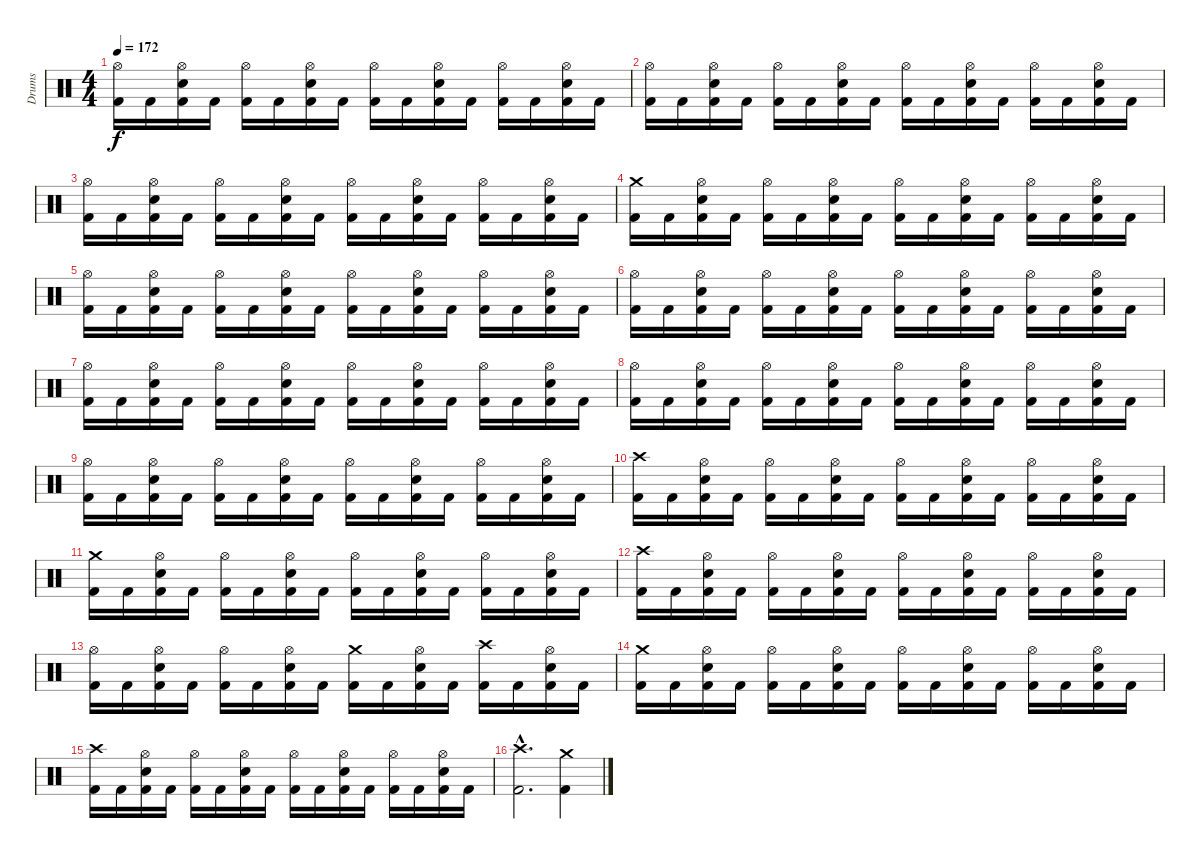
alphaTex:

\track ("Drums" "Drums") {instrument percussion}
\staff {score}
\articulation defaults
\ts (4 4)
\tempo 172
\clef neutral
\ks c
("Kick (hit) 2" "Hi-Hat (open)").16{dy f} "Kick (hit) 2".16 ("Kick (hit) 2" "Snare (hit) 2" "Hi-Hat (open)").16 "Kick (hit) 2".16 ("Kick (hit) 2" "Hi-Hat (open)").16 "Kick (hit) 2".16 ("Kick (hit) 2" "Snare (hit) 2" "Hi-Hat (open)").16 "Kick (hit) 2".16 ("Kick (hit) 2" "Hi-Hat (open)").16 "Kick (hit) 2".16 ("Kick (hit) 2" "Snare (hit) 2" "Hi-Hat (open)").16 "Kick (hit) 2".16 ("Kick (hit) 2" "Hi-Hat (open)").16 "Kick (hit) 2".16 ("Kick (hit) 2" "Snare (hit) 2" "Hi-Hat (open)").16 "Kick (hit) 2".16 |
("Kick (hit) 2" "Hi-Hat (open)").16 "Kick (hit) 2".16 ("Kick (hit) 2" "Snare (hit) 2" "Hi-Hat (open)").16 "Kick (hit) 2".16 ("Kick (hit) 2" "Hi-Hat (open)").16 "Kick (hit) 2".16 ("Kick (hit) 2" "Snare (hit) 2" "Hi-Hat (open)").16 "Kick (hit) 2".16 ("Kick (hit) 2" "Hi-Hat (open)").16 "Kick (hit) 2".16 ("Kick (hit) 2" "Snare (hit) 2" "Hi-Hat (open)").16 "Kick (hit) 2".16 ("Kick (hit) 2" "Hi-Hat (open)").16 "Kick (hit) 2".16 ("Kick (hit) 2" "Snare (hit) 2" "Hi-Hat (open)").16 "Kick (hit) 2".16 |
("Kick (hit) 2" "Hi-Hat (open)").16 "Kick (hit) 2".16 ("Kick (hit) 2" "Snare (hit) 2" "Hi-Hat (open)").16 "Kick (hit) 2".16 ("Kick (hit) 2" "Hi-Hat (open)").16 "Kick (hit) 2".16 ("Kick (hit) 2" "Snare (hit) 2" "Hi-Hat (open)").16 "Kick (hit) 2".16 ("Kick (hit) 2" "Hi-Hat (open)").16 "Kick (hit) 2".16 ("Kick (hit) 2" "Snare (hit) 2" "Hi-Hat (open)").16 "Kick (hit) 2".16 ("Kick (hit) 2" "Hi-Hat (open)").16 "Kick (hit) 2".16 ("Kick (hit) 2" "Snare (hit) 2" "Hi-Hat (open)").16 "Kick (hit) 2".16 |
("Kick (hit) 2" "Crash medium (hit)").16 "Kick (hit) 2".16 ("Kick (hit) 2" "Snare (hit) 2" "Hi-Hat (open)").16 "Kick (hit) 2".16 ("Kick (hit) 2" "Hi-Hat (open)").16 "Kick (hit) 2".16 ("Kick (hit) 2" "Snare (hit) 2" "Hi-Hat (open)").16 "Kick (hit) 2".16 ("Kick (hit) 2" "Hi-Hat (open)").16 "Kick (hit) 2".16 ("Kick (hit) 2" "Snare (hit) 2" "Hi-Hat (open)").16 "Kick (hit) 2".16 ("Kick (hit) 2" "Hi-Hat (open)").16 "Kick (hit) 2".16 ("Kick (hit) 2" "Snare (hit) 2" "Hi-Hat (open)").16 "Kick (hit) 2".16 |
("Kick (hit) 2" "Hi-Hat (open)").16 "Kick (hit) 2".16 ("Kick (hit) 2" "Snare (hit) 2" "Hi-Hat (open)").16 "Kick (hit) 2".16 ("Kick (hit) 2" "Hi-Hat (open)").16 "Kick (hit) 2".16 ("Kick (hit) 2" "Snare (hit) 2" "Hi-Hat (open)").16 "Kick (hit) 2".16 ("Kick (hit) 2" "Hi-Hat (open)").16 "Kick (hit) 2".16 ("Kick (hit) 2" "Snare (hit) 2" "Hi-Hat (open)").16 "Kick (hit) 2".16 ("Kick (hit) 2" "Hi-Hat (open)").16 "Kick (hit) 2".16 ("Kick (hit) 2" "Snare (hit) 2" "Hi-Hat (open)").16 "Kick (hit) 2".16 |
("Kick (hit) 2" "Hi-Hat (open)").16 "Kick (hit) 2".16 ("Kick (hit) 2" "Snare (hit) 2" "Hi-Hat (open)").16 "Kick (hit) 2".16 ("Kick (hit) 2" "Hi-Hat (open)").16 "Kick (hit) 2".16 ("Kick (hit) 2" "Snare (hit) 2" "Hi-Hat (open)").16 "Kick (hit) 2".16 ("Kick (hit) 2" "Hi-Hat (open)").16 "Kick (hit) 2".16 ("Kick (hit) 2" "Snare (hit) 2" "Hi-Hat (open)").16 "Kick (hit) 2".16 ("Kick (hit) 2" "Hi-Hat (open)").16 "Kick (hit) 2".16 ("Kick (hit) 2" "Snare (hit) 2" "Hi-Hat (open)").16 "Kick (hit) 2".16 |
("Kick (hit) 2" "Hi-Hat (open)").16 "Kick (hit) 2".16 ("Kick (hit) 2" "Snare (hit) 2" "Hi-Hat (open)").16 "Kick (hit) 2".16 ("Kick (hit) 2" "Hi-Hat (open)").16 "Kick (hit) 2".16 ("Kick (hit) 2" "Snare (hit) 2" "Hi-Hat (open)").16 "Kick (hit) 2".16 ("Kick (hit) 2" "Hi-Hat (open)").16 "Kick (hit) 2".16 ("Kick (hit) 2" "Snare (hit) 2" "Hi-Hat (open)").16 "Kick (hit) 2".16 ("Kick (hit) 2" "Hi-Hat (open)").16 "Kick (hit) 2".16 ("Kick (hit) 2" "Snare (hit) 2" "Hi-Hat (open)").16 "Kick (hit) 2".16 |
("Kick (hit) 2" "Hi-Hat (open)").16 "Kick (hit) 2".16 ("Kick (hit) 2" "Snare (hit) 2" "Hi-Hat (open)").16 "Kick (hit) 2".16 ("Kick (hit) 2" "Hi-Hat (open)").16 "Kick (hit) 2".16 ("Kick (hit) 2" "Snare (hit) 2" "Hi-Hat (open)").16 "Kick (hit) 2".16 ("Kick (hit) 2" "Hi-Hat (open)").16 "Kick (hit) 2".16 ("Kick (hit) 2" "Snare (hit) 2" "Hi-Hat (open)").16 "Kick (hit) 2".16 ("Kick (hit) 2" "Hi-Hat (open)").16 "Kick (hit) 2".16 ("Kick (hit) 2" "Snare (hit) 2" "Hi-Hat (open)").16 "Kick (hit) 2".16 |
("Kick (hit) 2" "Hi-Hat (open)").16 "Kick (hit) 2".16 ("Kick (hit) 2" "Snare (hit) 2" "Hi-Hat (open)").16 "Kick (hit) 2".16 ("Kick (hit) 2" "Hi-Hat (open)").16 "Kick (hit) 2".16 ("Kick (hit) 2" "Snare (hit) 2" "Hi-Hat (open)").16 "Kick (hit) 2".16 ("Kick (hit) 2" "Hi-Hat (open)").16 "Kick (hit) 2".16 ("Kick (hit) 2" "Snare (hit) 2" "Hi-Hat (open)").16 "Kick (hit) 2".16 ("Kick (hit) 2" "Hi-Hat (open)").16 "Kick (hit) 2".16 ("Kick (hit) 2" "Snare (hit) 2" "Hi-Hat (open)").16 "Kick (hit) 2".16 |
\section ("" "")
("Kick (hit) 2" "Crash high (hit)").16 "Kick (hit) 2".16 ("Kick (hit) 2" "Snare (hit) 2" "Hi-Hat (open)").16 "Kick (hit) 2".16 ("Kick (hit) 2" "Hi-Hat (open)").16 "Kick (hit) 2".16 ("Kick (hit) 2" "Snare (hit) 2" "Hi-Hat (open)").16 "Kick (hit) 2".16 ("Kick (hit) 2" "Hi-Hat (open)").16 "Kick (hit) 2".16 ("Kick (hit) 2" "Snare (hit) 2" "Hi-Hat (open)").16 "Kick (hit) 2".16 ("Kick (hit) 2" "Hi-Hat (open)").16 "Kick (hit) 2".16 ("Kick (hit) 2" "Snare (hit) 2" "Hi-Hat (open)").16 "Kick (hit) 2".16 |
("Kick (hit) 2" "Crash medium (hit)").16 "Kick (hit) 2".16 ("Kick (hit) 2" "Snare (hit) 2" "Hi-Hat (open)").16 "Kick (hit) 2".16 ("Kick (hit) 2" "Hi-Hat (open)").16 "Kick (hit) 2".16 ("Kick (hit) 2" "Snare (hit) 2" "Hi-Hat (open)").16 "Kick (hit) 2".16 ("Kick (hit) 2" "Hi-Hat (open)").16 "Kick (hit) 2".16 ("Kick (hit) 2" "Snare (hit) 2" "Hi-Hat (open)").16 "Kick (hit) 2".16 ("Kick (hit) 2" "Hi-Hat (open)").16 "Kick (hit) 2".16 ("Kick (hit) 2" "Snare (hit) 2" "Hi-Hat (open)").16 "Kick (hit) 2".16 |
("Kick (hit) 2" "Crash high (hit)").16 "Kick (hit) 2".16 ("Kick (hit) 2" "Snare (hit) 2" "Hi-Hat (open)").16 "Kick (hit) 2".16 ("Kick (hit) 2" "Hi-Hat (open)").16 "Kick (hit) 2".16 ("Kick (hit) 2" "Snare (hit) 2" "Hi-Hat (open)").16 "Kick (hit) 2".16 ("Kick (hit) 2" "Hi-Hat (open)").16 "Kick (hit) 2".16 ("Kick (hit) 2" "Snare (hit) 2" "Hi-Hat (open)").16 "Kick (hit) 2".16 ("Kick (hit) 2" "Hi-Hat (open)").16 "Kick (hit) 2".16 ("Kick (hit) 2" "Snare (hit) 2" "Hi-Hat (open)").16 "Kick (hit) 2".16 |
("Kick (hit) 2" "Hi-Hat (open)").16 "Kick (hit) 2".16 ("Kick (hit) 2" "Snare (hit) 2" "Hi-Hat (open)").16 "Kick (hit) 2".16 ("Kick (hit) 2" "Hi-Hat (open)").16 "Kick (hit) 2".16 ("Kick (hit) 2" "Snare (hit) 2" "Hi-Hat (open)").16 "Kick (hit) 2".16 ("Kick (hit) 2" "Crash medium (hit)").16 "Kick (hit) 2".16 ("Kick (hit) 2" "Snare (hit) 2" "Hi-Hat (open)").16 "Kick (hit) 2".16 ("Kick (hit) 2" "Crash high (hit)").16 "Kick (hit) 2".16 ("Kick (hit) 2" "Snare (hit) 2" "Hi-Hat (open)").16 "Kick (hit) 2".16 |
("Kick (hit) 2" "Crash medium (hit)").16 "Kick (hit) 2".16 ("Kick (hit) 2" "Snare (hit) 2" "Hi-Hat (open)").16 "Kick (hit) 2".16 ("Kick (hit) 2" "Hi-Hat (open)").16 "Kick (hit) 2".16 ("Kick (hit) 2" "Snare (hit) 2" "Hi-Hat (open)").16 "Kick (hit) 2".16 ("Kick (hit) 2" "Hi-Hat (open)").16 "Kick (hit) 2".16 ("Kick (hit) 2" "Snare (hit) 2" "Hi-Hat (open)").16 "Kick (hit) 2".16 ("Kick (hit) 2" "Hi-Hat (open)").16 "Kick (hit) 2".16 ("Kick (hit) 2" "Snare (hit) 2" "Hi-Hat (open)").16 "Kick (hit) 2".16 |
("Kick (hit) 2" "Crash high (hit)").16 "Kick (hit) 2".16 ("Kick (hit) 2" "Snare (hit) 2" "Hi-Hat (open)").16 "Kick (hit) 2".16 ("Kick (hit) 2" "Hi-Hat (open)").16 "Kick (hit) 2".16 ("Kick (hit) 2" "Snare (hit) 2" "Hi-Hat (open)").16 "Kick (hit) 2".16 ("Kick (hit) 2" "Hi-Hat (open)").16 "Kick (hit) 2".16 ("Kick (hit) 2" "Snare (hit) 2" "Hi-Hat (open)").16 "Kick (hit) 2".16 ("Kick (hit) 2" "Hi-Hat (open)").16 "Kick (hit) 2".16 ("Kick (hit) 2" "Snare (hit) 2" "Hi-Hat (open)").16 "Kick (hit) 2".16 |
("Kick (hit) 2"{hac} "Crash high (hit)"{hac}).2{d} ("Kick (hit) 2" "Crash medium (hit)").4
